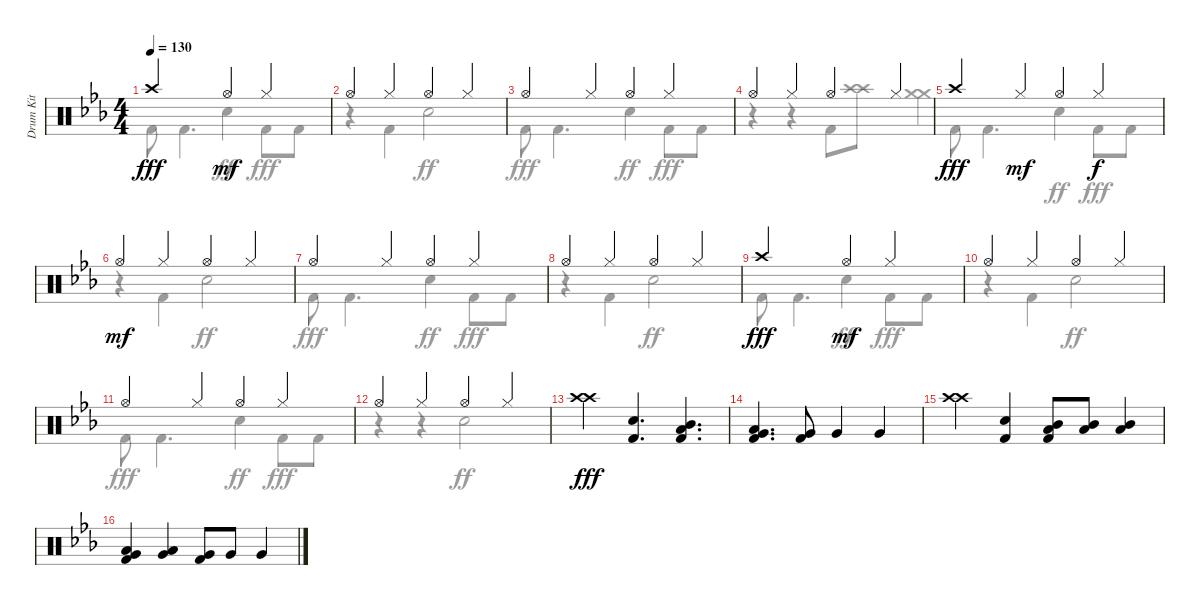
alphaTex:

\track ("Drum Kit" "Drum Kit") {instrument percussion}
\staff {score}
\articulation defaults
\voice
\ts (4 4)
\tempo 130
\clef neutral
\ks cminor "Crash high (hit)".2{dy fff} "Hi-Hat (open)".4{dy mf} "Hi-Hat (closed)".4
|
"Hi-Hat (open)".4 "Hi-Hat (closed)".4 "Hi-Hat (open)".4 "Hi-Hat (closed)".4 |
"Hi-Hat (open)".4 "Hi-Hat (closed)".4 "Hi-Hat (open)".4 "Hi-Hat (closed)".4 |
"Hi-Hat (open)".4 "Hi-Hat (closed)".4 "Hi-Hat (open)".4 "Hi-Hat (closed)".4 |
"Crash high (hit)".4{dy fff} "Hi-Hat (closed)".4{dy mf} "Hi-Hat (open)".4 "Hi-Hat (closed)".4{dy f} |
"Hi-Hat (open)".4{dy mf} "Hi-Hat (closed)".4 "Hi-Hat (open)".4 "Hi-Hat (closed)".4 |
"Hi-Hat (open)".4 "Hi-Hat (closed)".4 "Hi-Hat (open)".4 "Hi-Hat (closed)".4 |
"Hi-Hat (open)".4 "Hi-Hat (closed)".4 "Hi-Hat (open)".4 "Hi-Hat (closed)".4 |
"Crash high (hit)".2{dy fff} "Hi-Hat (open)".4{dy mf} "Hi-Hat (closed)".4 |
"Hi-Hat (open)".4 "Hi-Hat (closed)".4 "Hi-Hat (open)".4 "Hi-Hat (closed)".4 |
"Hi-Hat (open)".4 "Hi-Hat (closed)".4 "Hi-Hat (open)".4 "Hi-Hat (closed)".4 |
"Hi-Hat (open)".4 "Hi-Hat (closed)".4 "Hi-Hat (open)".4 "Hi-Hat (closed)".4 |
("Crash high (hit)" "Crash high (hit)").4{dy fff} ("Electric Snare (hit)" "Kick (hit) 2").4{d} ("Mid Tom (hit)" "Low Tom (hit)" "Kick (hit) 2").4{d} |
("Low Tom (hit)" "Very Low Tom (hit)" "Kick (hit) 2").4{d} ("Very Low Tom (hit)" "Kick (hit) 2").8 "Very Low Tom (hit)".4 "Very Low Tom (hit)".4 |
("Crash high (hit)" "Crash high (hit)").4 ("Electric Snare (hit)" "Kick (hit) 2").4 ("Mid Tom (hit)" "Low Tom (hit)" "Kick (hit) 2").8 ("Mid Tom (hit)" "Low Tom (hit)").8 ("Mid Tom (hit)" "Low Tom (hit)").4 |
("Low Tom (hit)" "Very Low Tom (hit)" "Kick (hit) 2").4 ("Low Tom (hit)" "Very Low Tom (hit)").4 ("Very Low Tom (hit)" "Kick (hit) 2").8 "Very Low Tom (hit)".8 "Very Low Tom (hit)".4
\voice
\clef neutral
\ottava regular
\simile none
\ks cminor "Kick (hit) 2".8{dy fff} "Kick (hit) 2".4{d} "Electric Snare (hit)".4{dy ff} "Kick (hit) 2".8{dy fff} "Kick (hit) 2".8
|
r.4 "Kick (hit) 2".4 "Electric Snare (hit)".2{dy ff} |
"Kick (hit) 2".8{dy fff} "Kick (hit) 2".4{d} "Electric Snare (hit)".4{dy ff} "Kick (hit) 2".8{dy fff} "Kick (hit) 2".8 |
r.4 r.4 "Kick (hit) 2".8 ("Crash high (hit)" "Crash high (hit)").8 ("Crash medium (hit)" "Crash medium (hit)").4 |
"Kick (hit) 2".8 "Kick (hit) 2".4{d} "Electric Snare (hit)".4{dy ff} "Kick (hit) 2".8{dy fff} "Kick (hit) 2".8 |
r.4 "Kick (hit) 2".4 "Electric Snare (hit)".2{dy ff} |
"Kick (hit) 2".8{dy fff} "Kick (hit) 2".4{d} "Electric Snare (hit)".4{dy ff} "Kick (hit) 2".8{dy fff} "Kick (hit) 2".8 |
r.4 "Kick (hit) 2".4 "Electric Snare (hit)".2{dy ff} |
"Kick (hit) 2".8{dy fff} "Kick (hit) 2".4{d} "Electric Snare (hit)".4{dy ff} "Kick (hit) 2".8{dy fff} "Kick (hit) 2".8 |
r.4 "Kick (hit) 2".4 "Electric Snare (hit)".2{dy ff} |
"Kick (hit) 2".8{dy fff} "Kick (hit) 2".4{d} "Electric Snare (hit)".4{dy ff} "Kick (hit) 2".8{dy fff} "Kick (hit) 2".8 |
r.4 r.4 "Electric Snare (hit)".2{dy ff} |
|
|
|
